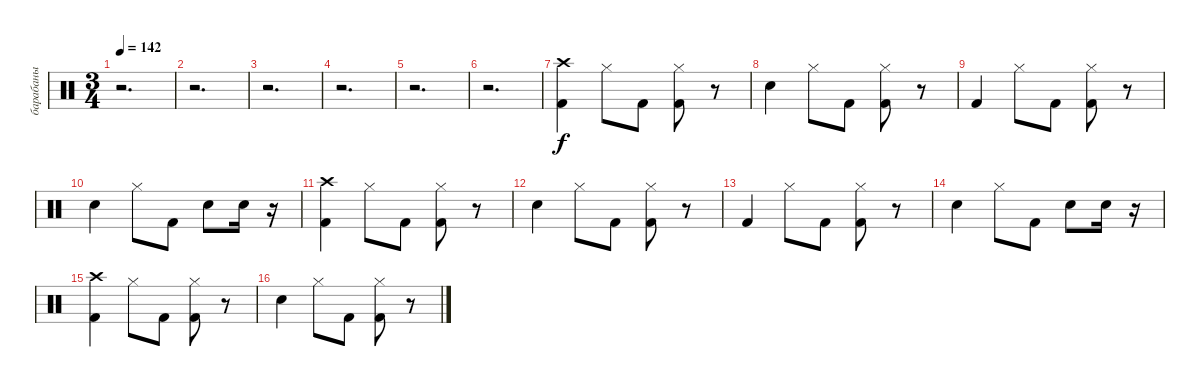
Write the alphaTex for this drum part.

\track ("барабаны" "барабаны") {instrument percussion}
\staff {score}
\articulation defaults
\ts (3 4)
\tempo 142
\clef neutral
\ks c
r.2{d dy f} |
r.2{d} |
r.2{d} |
r.2{d} |
r.2{d} |
r.2{d} |
("Crash high (hit)" "Kick (hit) 2").4 "Hi-Hat (closed)".8 "Kick (hit) 2".8 ("Hi-Hat (closed)" "Kick (hit) 2").8 r.8 |
"Snare (hit) 2".4 "Hi-Hat (closed)".8 "Kick (hit) 2".8 ("Hi-Hat (closed)" "Kick (hit) 2").8 r.8 |
"Kick (hit) 2".4 "Hi-Hat (closed)".8 "Kick (hit) 2".8 ("Hi-Hat (closed)" "Kick (hit) 2").8 r.8 |
"Snare (hit) 2".4 "Hi-Hat (closed)".8 "Kick (hit) 2".8 "Snare (hit) 2".8 "Snare (hit) 2".16 r.16 |
("Crash high (hit)" "Kick (hit) 2").4 "Hi-Hat (closed)".8 "Kick (hit) 2".8 ("Hi-Hat (closed)" "Kick (hit) 2").8 r.8 |
"Snare (hit) 2".4 "Hi-Hat (closed)".8 "Kick (hit) 2".8 ("Hi-Hat (closed)" "Kick (hit) 2").8 r.8 |
"Kick (hit) 2".4 "Hi-Hat (closed)".8 "Kick (hit) 2".8 ("Hi-Hat (closed)" "Kick (hit) 2").8 r.8 |
"Snare (hit) 2".4 "Hi-Hat (closed)".8 "Kick (hit) 2".8 "Snare (hit) 2".8 "Snare (hit) 2".16 r.16 |
("Crash high (hit)" "Kick (hit) 2").4 "Hi-Hat (closed)".8 "Kick (hit) 2".8 ("Hi-Hat (closed)" "Kick (hit) 2").8 r.8 |
"Snare (hit) 2".4 "Hi-Hat (closed)".8 "Kick (hit) 2".8 ("Hi-Hat (closed)" "Kick (hit) 2").8 r.8
